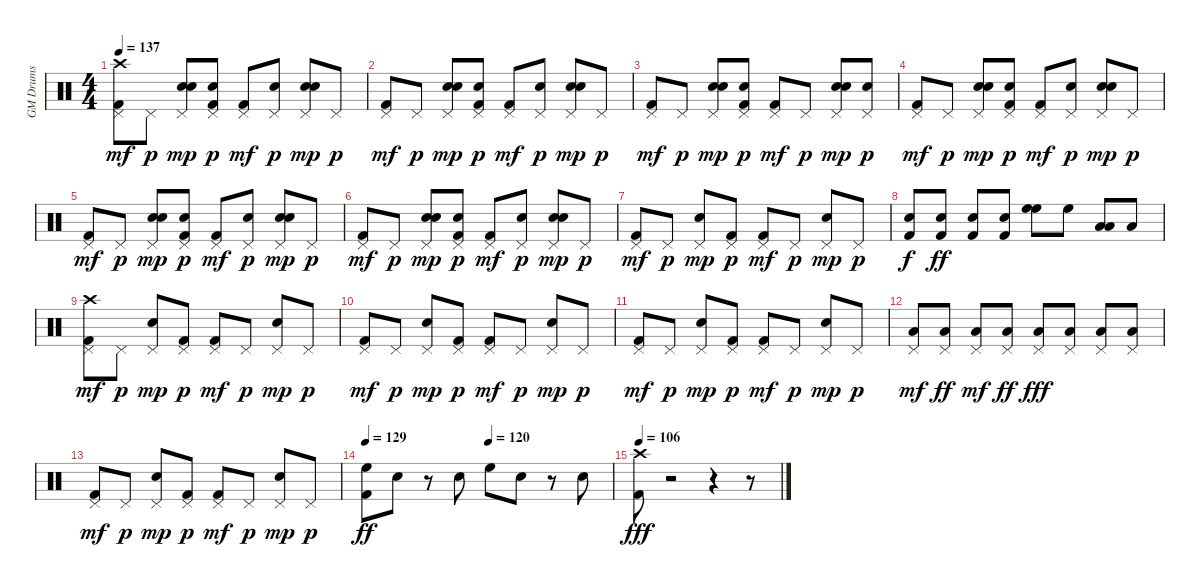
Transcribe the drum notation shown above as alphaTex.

\track ("GM Drums            " "GM Drums  ") {instrument percussion}
\staff {score}
\articulation defaults
\ts (4 4)
\tempo 137
\clef neutral
\ks c
("Crash high (hit)" "Kick (hit) 2" "Pedal Hi-Hat (hit)").8{dy mf} "Pedal Hi-Hat (hit)".8{dy p} ("Hand Clap (hit)" "Snare (hit) 2" "Pedal Hi-Hat (hit)").8{dy mp} ("Hand Clap (hit)" "Pedal Hi-Hat (hit)" "Kick (hit) 2").8{dy p} ("Kick (hit) 2" "Pedal Hi-Hat (hit)").8{dy mf} ("Hand Clap (hit)" "Pedal Hi-Hat (hit)").8{dy p} ("Hand Clap (hit)" "Snare (hit) 2" "Pedal Hi-Hat (hit)").8{dy mp} "Pedal Hi-Hat (hit)".8{dy p} |
("Kick (hit) 2" "Pedal Hi-Hat (hit)").8{dy mf} "Pedal Hi-Hat (hit)".8{dy p} ("Hand Clap (hit)" "Snare (hit) 2" "Pedal Hi-Hat (hit)").8{dy mp} ("Hand Clap (hit)" "Pedal Hi-Hat (hit)" "Kick (hit) 2").8{dy p} ("Kick (hit) 2" "Pedal Hi-Hat (hit)").8{dy mf} ("Hand Clap (hit)" "Pedal Hi-Hat (hit)").8{dy p} ("Hand Clap (hit)" "Snare (hit) 2" "Pedal Hi-Hat (hit)").8{dy mp} "Pedal Hi-Hat (hit)".8{dy p} |
("Kick (hit) 2" "Pedal Hi-Hat (hit)").8{dy mf} "Pedal Hi-Hat (hit)".8{dy p} ("Hand Clap (hit)" "Snare (hit) 2" "Pedal Hi-Hat (hit)").8{dy mp} ("Hand Clap (hit)" "Pedal Hi-Hat (hit)" "Kick (hit) 2").8{dy p} ("Kick (hit) 2" "Pedal Hi-Hat (hit)").8{dy mf} "Pedal Hi-Hat (hit)".8{dy p} ("Hand Clap (hit)" "Snare (hit) 2" "Pedal Hi-Hat (hit)").8{dy mp} ("Hand Clap (hit)" "Pedal Hi-Hat (hit)").8{dy p} |
("Kick (hit) 2" "Pedal Hi-Hat (hit)").8{dy mf} "Pedal Hi-Hat (hit)".8{dy p} ("Hand Clap (hit)" "Snare (hit) 2" "Pedal Hi-Hat (hit)").8{dy mp} ("Hand Clap (hit)" "Pedal Hi-Hat (hit)" "Kick (hit) 2").8{dy p} ("Kick (hit) 2" "Pedal Hi-Hat (hit)").8{dy mf} ("Hand Clap (hit)" "Pedal Hi-Hat (hit)").8{dy p} ("Hand Clap (hit)" "Snare (hit) 2" "Pedal Hi-Hat (hit)").8{dy mp} "Pedal Hi-Hat (hit)".8{dy p} |
("Kick (hit) 2" "Pedal Hi-Hat (hit)").8{dy mf} "Pedal Hi-Hat (hit)".8{dy p} ("Hand Clap (hit)" "Snare (hit) 2" "Pedal Hi-Hat (hit)").8{dy mp} ("Hand Clap (hit)" "Pedal Hi-Hat (hit)" "Kick (hit) 2").8{dy p} ("Kick (hit) 2" "Pedal Hi-Hat (hit)").8{dy mf} ("Hand Clap (hit)" "Pedal Hi-Hat (hit)").8{dy p} ("Hand Clap (hit)" "Snare (hit) 2" "Pedal Hi-Hat (hit)").8{dy mp} "Pedal Hi-Hat (hit)".8{dy p} |
("Kick (hit) 2" "Pedal Hi-Hat (hit)").8{dy mf} "Pedal Hi-Hat (hit)".8{dy p} ("Hand Clap (hit)" "Snare (hit) 2" "Pedal Hi-Hat (hit)").8{dy mp} ("Hand Clap (hit)" "Pedal Hi-Hat (hit)" "Kick (hit) 2").8{dy p} ("Kick (hit) 2" "Pedal Hi-Hat (hit)").8{dy mf} ("Hand Clap (hit)" "Pedal Hi-Hat (hit)").8{dy p} ("Hand Clap (hit)" "Snare (hit) 2" "Pedal Hi-Hat (hit)").8{dy mp} "Pedal Hi-Hat (hit)".8{dy p} |
("Kick (hit) 2" "Pedal Hi-Hat (hit)").8{dy mf} "Pedal Hi-Hat (hit)".8{dy p} ("Snare (hit) 2" "Pedal Hi-Hat (hit)").8{dy mp} ("Pedal Hi-Hat (hit)" "Kick (hit) 2").8{dy p} ("Kick (hit) 2" "Pedal Hi-Hat (hit)").8{dy mf} "Pedal Hi-Hat (hit)".8{dy p} ("Snare (hit) 2" "Pedal Hi-Hat (hit)").8{dy mp} "Pedal Hi-Hat (hit)".8{dy p} |
("Snare (hit) 2" "Kick (hit) 2").8{dy f} ("Kick (hit) 2" "Snare (hit) 2").8{dy ff} ("Kick (hit) 2" "Snare (hit) 2").8 ("Snare (hit) 2" "Kick (hit) 2").8 ("High Floor Tom (hit)" "High Floor Tom (hit)").8 "High Floor Tom (hit)".8 ("Low Floor Tom (hit)" "Low Floor Tom (hit)").8 "Low Floor Tom (hit)".8 |
("Crash high (hit)" "Kick (hit) 2" "Pedal Hi-Hat (hit)").8{dy mf} "Pedal Hi-Hat (hit)".8{dy p} ("Snare (hit) 2" "Pedal Hi-Hat (hit)").8{dy mp} ("Pedal Hi-Hat (hit)" "Kick (hit) 2").8{dy p} ("Kick (hit) 2" "Pedal Hi-Hat (hit)").8{dy mf} "Pedal Hi-Hat (hit)".8{dy p} ("Snare (hit) 2" "Pedal Hi-Hat (hit)").8{dy mp} "Pedal Hi-Hat (hit)".8{dy p} |
("Kick (hit) 2" "Pedal Hi-Hat (hit)").8{dy mf} "Pedal Hi-Hat (hit)".8{dy p} ("Snare (hit) 2" "Pedal Hi-Hat (hit)").8{dy mp} ("Pedal Hi-Hat (hit)" "Kick (hit) 2").8{dy p} ("Kick (hit) 2" "Pedal Hi-Hat (hit)").8{dy mf} "Pedal Hi-Hat (hit)".8{dy p} ("Snare (hit) 2" "Pedal Hi-Hat (hit)").8{dy mp} "Pedal Hi-Hat (hit)".8{dy p} |
("Kick (hit) 2" "Pedal Hi-Hat (hit)").8{dy mf} "Pedal Hi-Hat (hit)".8{dy p} ("Snare (hit) 2" "Pedal Hi-Hat (hit)").8{dy mp} ("Pedal Hi-Hat (hit)" "Kick (hit) 2").8{dy p} ("Kick (hit) 2" "Pedal Hi-Hat (hit)").8{dy mf} "Pedal Hi-Hat (hit)".8{dy p} ("Snare (hit) 2" "Pedal Hi-Hat (hit)").8{dy mp} "Pedal Hi-Hat (hit)".8{dy p} |
("Low Floor Tom (hit)" "Pedal Hi-Hat (hit)").8{dy mf} ("Pedal Hi-Hat (hit)" "Low Floor Tom (hit)").8{dy ff} ("Low Floor Tom (hit)" "Pedal Hi-Hat (hit)").8{dy mf} ("Pedal Hi-Hat (hit)" "Low Floor Tom (hit)").8{dy ff} ("Pedal Hi-Hat (hit)" "Low Floor Tom (hit)").8{dy fff} ("Pedal Hi-Hat (hit)" "Low Floor Tom (hit)").8 ("Pedal Hi-Hat (hit)" "Low Floor Tom (hit)").8 ("Pedal Hi-Hat (hit)" "Low Floor Tom (hit)").8 |
("Kick (hit) 2" "Pedal Hi-Hat (hit)").8{dy mf} "Pedal Hi-Hat (hit)".8{dy p} ("Snare (hit) 2" "Pedal Hi-Hat (hit)").8{dy mp} ("Pedal Hi-Hat (hit)" "Kick (hit) 2").8{dy p} ("Kick (hit) 2" "Pedal Hi-Hat (hit)").8{dy mf} "Pedal Hi-Hat (hit)".8{dy p} ("Snare (hit) 2" "Pedal Hi-Hat (hit)").8{dy mp} "Pedal Hi-Hat (hit)".8{dy p} |
\tempo 129
\tempo (120 0.5)
("High Floor Tom (hit)" "Kick (hit) 2").8{dy ff} "Snare (hit) 2".8 r.8 "Snare (hit) 2".8 "High Floor Tom (hit)".8 "Snare (hit) 2".8 r.8 "Snare (hit) 2".8 |
\tempo 106
("Kick (hit) 2" "Crash high (hit)").8{dy fff} r.2 r.4 r.8
